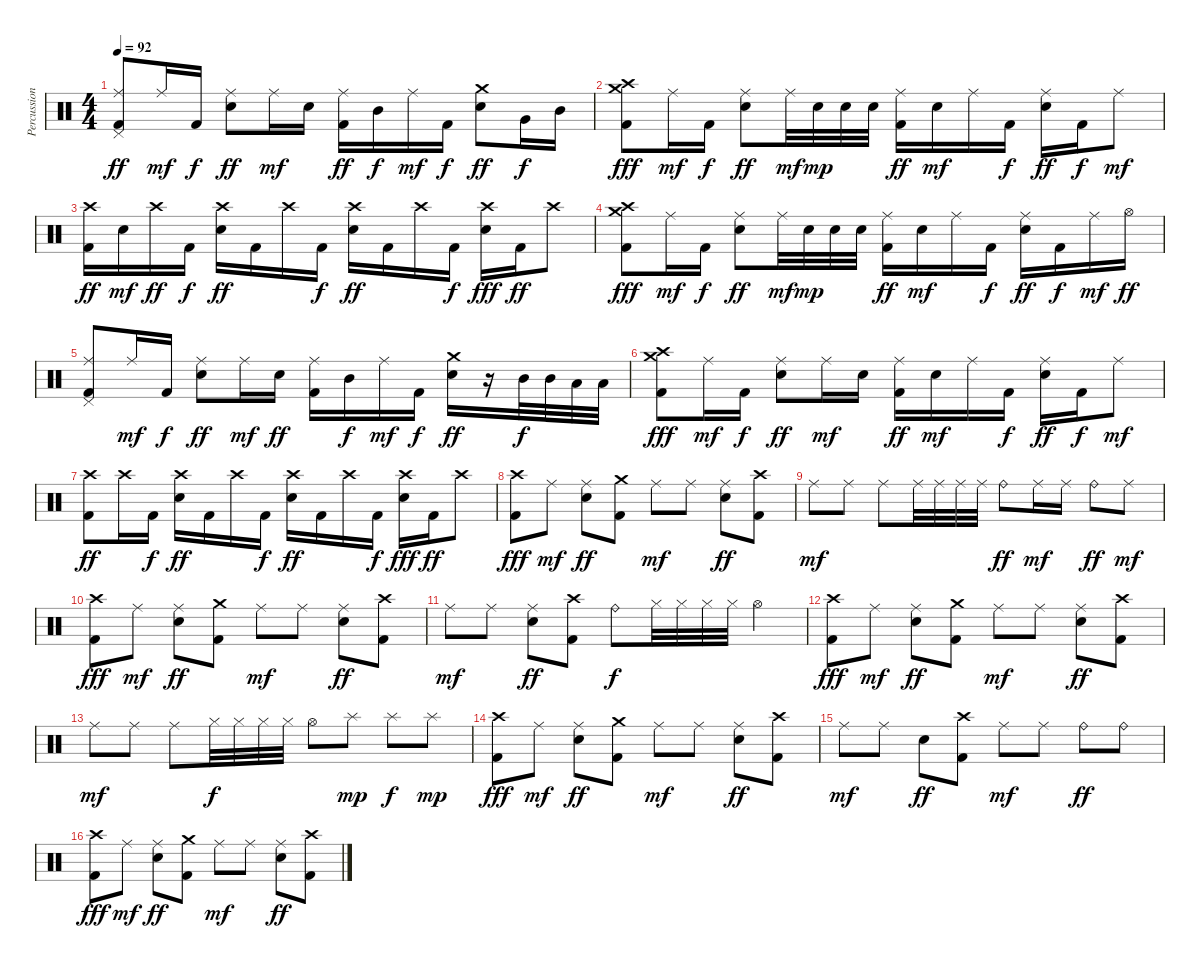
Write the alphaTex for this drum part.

\track ("Percussions" "Percussion") {instrument percussion}
\staff {score}
\articulation defaults
\ts (4 4)
\tempo 92
\clef neutral
\ks c
("Pedal Hi-Hat (hit)" "Ride (middle)" "Kick (hit) 2").8{dy ff} "Ride (middle)".16{dy mf} "Kick (hit) 2".16{dy f} ("Ride (middle)" "Electric Snare (hit)").8{dy ff} "Ride (middle)".16{dy mf} "Electric Snare (hit)".16 ("Ride (middle)" "Kick (hit) 2").16{dy ff} "Mid Tom (hit)".16{dy f} "Ride (middle)".16{dy mf} "Kick (hit) 2".16{dy f} ("Crash medium (hit)" "Electric Snare (hit)").8{dy ff} "Very Low Tom (hit)".16{dy f} "Mid Tom (hit)".16 |
("Crash medium (hit)" "Crash high (hit)" "Kick (hit) 2").8{dy fff} "Ride (middle)".16{dy mf} "Kick (hit) 2".16{dy f} ("Ride (middle)" "Electric Snare (hit)").8{dy ff} "Ride (middle)".32{dy mf} "Electric Snare (hit)".32{dy mp} "Electric Snare (hit)".32 "Electric Snare (hit)".32 ("Ride (middle)" "Kick (hit) 2").16{dy ff} "Electric Snare (hit)".16{dy mf} "Ride (middle)".16 "Kick (hit) 2".16{dy f} ("Ride (middle)" "Electric Snare (hit)").16{dy ff} "Kick (hit) 2".16{dy f} "Ride (middle)".8{dy mf} |
("Crash high (hit)" "Kick (hit) 2").16{dy ff} "Electric Snare (hit)".16{dy mf} "Crash high (hit)".16{dy ff} "Kick (hit) 2".16{dy f} ("Crash high (hit)" "Electric Snare (hit)").16{dy ff} "Kick (hit) 2".16 "Crash high (hit)".16 "Kick (hit) 2".16{dy f} ("Crash high (hit)" "Electric Snare (hit)").16{dy ff} "Kick (hit) 2".16 "Crash high (hit)".16 "Kick (hit) 2".16{dy f} ("Crash high (hit)" "Electric Snare (hit)").16{dy fff} "Kick (hit) 2".16{dy ff} "Crash high (hit)".8 |
("Crash medium (hit)" "Crash high (hit)" "Kick (hit) 2").8{dy fff} "Ride (middle)".16{dy mf} "Kick (hit) 2".16{dy f} ("Ride (middle)" "Electric Snare (hit)").8{dy ff} "Ride (middle)".32{dy mf} "Electric Snare (hit)".32{dy mp} "Electric Snare (hit)".32 "Electric Snare (hit)".32 ("Ride (middle)" "Kick (hit) 2").16{dy ff} "Electric Snare (hit)".16{dy mf} "Ride (middle)".16 "Kick (hit) 2".16{dy f} ("Ride (middle)" "Electric Snare (hit)").16{dy ff} "Kick (hit) 2".16{dy f} "Ride (middle)".16{dy mf} "Hi-Hat (open)".16{dy ff} |
("Pedal Hi-Hat (hit)" "Ride (middle)" "Kick (hit) 2").8 "Ride (middle)".16{dy mf} "Kick (hit) 2".16{dy f} ("Ride (middle)" "Electric Snare (hit)").8{dy ff} "Ride (middle)".16{dy mf} "Electric Snare (hit)".16{dy ff} ("Ride (middle)" "Kick (hit) 2").16 "Mid Tom (hit)".16{dy f} "Ride (middle)".16{dy mf} "Kick (hit) 2".16{dy f} ("Crash medium (hit)" "Electric Snare (hit)").16{dy ff} r.16 "Mid Tom (hit)".32{dy f} "Mid Tom (hit)".32 "Low Tom (hit)".32 "Low Tom (hit)".32 |
("Crash medium (hit)" "Crash high (hit)" "Kick (hit) 2").8{dy fff} "Ride (middle)".16{dy mf} "Kick (hit) 2".16{dy f} ("Ride (middle)" "Electric Snare (hit)").8{dy ff} "Ride (middle)".16{dy mf} "Electric Snare (hit)".16 ("Ride (middle)" "Kick (hit) 2").16{dy ff} "Electric Snare (hit)".16{dy mf} "Ride (middle)".16 "Kick (hit) 2".16{dy f} ("Ride (middle)" "Electric Snare (hit)").16{dy ff} "Kick (hit) 2".16{dy f} "Ride (middle)".8{dy mf} |
("Crash high (hit)" "Kick (hit) 2").8{dy ff} "Crash high (hit)".16 "Kick (hit) 2".16{dy f} ("Crash high (hit)" "Electric Snare (hit)").16{dy ff} "Kick (hit) 2".16 "Crash high (hit)".16 "Kick (hit) 2".16{dy f} ("Crash high (hit)" "Electric Snare (hit)").16{dy ff} "Kick (hit) 2".16 "Crash high (hit)".16 "Kick (hit) 2".16{dy f} ("Crash high (hit)" "Electric Snare (hit)").16{dy fff} "Kick (hit) 2".16{dy ff} "Crash high (hit)".8 |
("Crash high (hit)" "Kick (hit) 2").8{dy fff} "Ride (middle)".8{dy mf} ("Ride (middle)" "Electric Snare (hit)").8{dy ff} ("Crash medium (hit)" "Kick (hit) 2").8 "Ride (middle)".8{dy mf} "Ride (middle)".8 ("Ride (middle)" "Electric Snare (hit)").8{dy ff} ("Crash high (hit)" "Kick (hit) 2").8 |
"Ride (middle)".8{dy mf} "Ride (middle)".8 "Ride (middle)".8 "Ride (middle)".32 "Ride (middle)".32 "Ride (middle)".32 "Ride (middle)".32 "Ride (bell)".8{dy ff} "Ride (middle)".16{dy mf} "Ride (middle)".16 "Ride (bell)".8{dy ff} "Ride (middle)".8{dy mf} |
("Crash high (hit)" "Kick (hit) 2").8{dy fff} "Ride (middle)".8{dy mf} ("Ride (middle)" "Electric Snare (hit)").8{dy ff} ("Crash medium (hit)" "Kick (hit) 2").8 "Ride (middle)".8{dy mf} "Ride (middle)".8 ("Ride (middle)" "Electric Snare (hit)").8{dy ff} ("Crash high (hit)" "Kick (hit) 2").8 |
"Ride (middle)".8{dy mf} "Ride (middle)".8 ("Ride (middle)" "Electric Snare (hit)").8{dy ff} ("Crash high (hit)" "Kick (hit) 2").8 "Ride (bell)".8{dy f} "Hi-Hat (closed)".32 "Hi-Hat (closed)".32 "Hi-Hat (closed)".32 "Hi-Hat (closed)".32 "Hi-Hat (open)".4 |
("Crash high (hit)" "Kick (hit) 2").8{dy fff} "Ride (middle)".8{dy mf} ("Ride (middle)" "Electric Snare (hit)").8{dy ff} ("Crash medium (hit)" "Kick (hit) 2").8 "Ride (middle)".8{dy mf} "Ride (middle)".8 ("Ride (middle)" "Electric Snare (hit)").8{dy ff} ("Crash high (hit)" "Kick (hit) 2").8 |
"Ride (middle)".8{dy mf} "Ride (middle)".8 "Ride (middle)".8 "Hi-Hat (closed)".32{dy f} "Hi-Hat (closed)".32 "Hi-Hat (closed)".32 "Hi-Hat (closed)".32 "Hi-Hat (open)".8 "Splash (hit)".8{dy mp} "Splash (hit)".8{dy f} "Splash (hit)".8{dy mp} |
("Crash high (hit)" "Kick (hit) 2").8{dy fff} "Ride (middle)".8{dy mf} ("Ride (middle)" "Electric Snare (hit)").8{dy ff} ("Crash medium (hit)" "Kick (hit) 2").8 "Ride (middle)".8{dy mf} "Ride (middle)".8 ("Ride (middle)" "Electric Snare (hit)").8{dy ff} ("Crash high (hit)" "Kick (hit) 2").8 |
"Ride (middle)".8{dy mf} "Ride (middle)".8 "Electric Snare (hit)".8{dy ff} ("Crash high (hit)" "Kick (hit) 2").8 "Ride (middle)".8{dy mf} "Ride (middle)".8 "Ride (bell)".8{dy ff} "Ride (bell)".8 |
("Crash high (hit)" "Kick (hit) 2").8{dy fff} "Ride (middle)".8{dy mf} ("Ride (middle)" "Electric Snare (hit)").8{dy ff} ("Crash medium (hit)" "Kick (hit) 2").8 "Ride (middle)".8{dy mf} "Ride (middle)".8 ("Ride (middle)" "Electric Snare (hit)").8{dy ff} ("Crash high (hit)" "Kick (hit) 2").8
